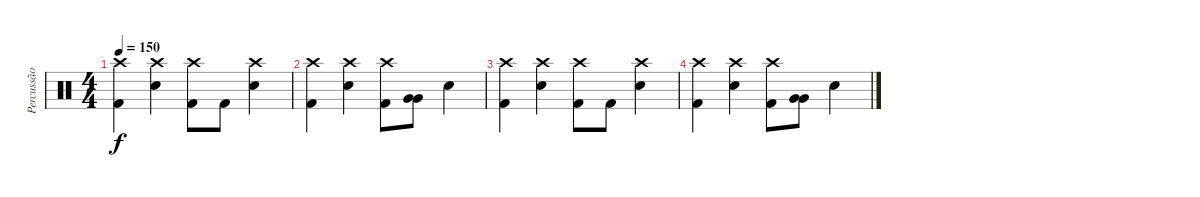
\track ("Percussão" "Percussão") {instrument percussion}
\staff {score}
\articulation defaults
\ts (4 4)
\tempo 150
\clef neutral
\ks c
("Crash high (hit)" "Kick (hit) 2").4{dy f} ("Crash high (hit)" "Electric Snare (hit)").4 ("Crash high (hit)" "Kick (hit) 2").8 "Kick (hit) 2".8 ("Crash high (hit)" "Electric Snare (hit)").4 |
("Crash high (hit)" "Kick (hit) 2").4 ("Crash high (hit)" "Electric Snare (hit)").4 ("Crash high (hit)" "Kick (hit) 2").8 ("Very Low Tom (hit)" "Very Low Tom (hit)").8 "Electric Snare (hit)".4 |
("Crash high (hit)" "Kick (hit) 2").4 ("Crash high (hit)" "Electric Snare (hit)").4 ("Crash high (hit)" "Kick (hit) 2").8 "Kick (hit) 2".8 ("Crash high (hit)" "Electric Snare (hit)").4 |
("Crash high (hit)" "Kick (hit) 2").4 ("Crash high (hit)" "Electric Snare (hit)").4 ("Crash high (hit)" "Kick (hit) 2").8 ("Very Low Tom (hit)" "Very Low Tom (hit)").8 "Electric Snare (hit)".4
